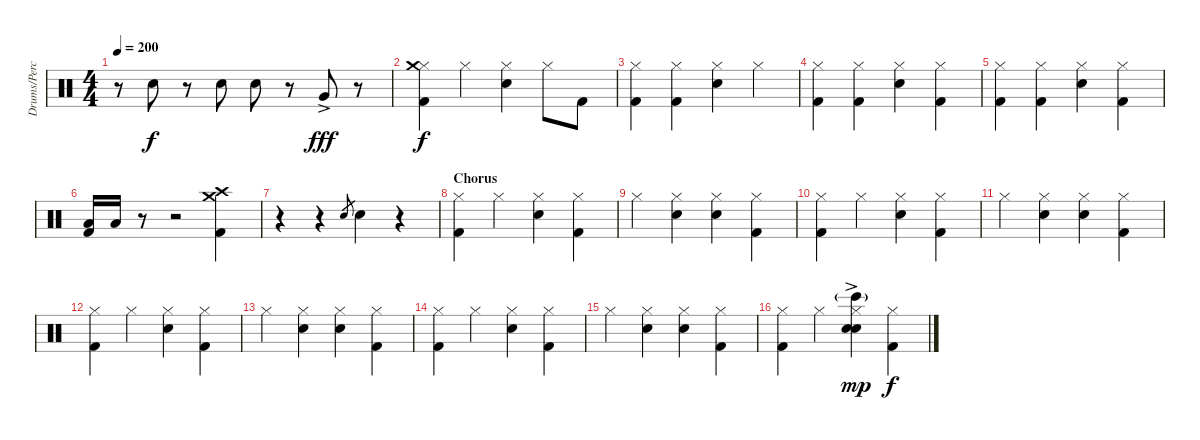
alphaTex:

\track ("Drums/Percussion" "Drums/Perc") {instrument percussion}
\staff {score}
\articulation defaults
\ts (4 4)
\tempo 200
\clef neutral
\ks c
r.8{dy f} "Snare (hit) 2".8 r.8 "Snare (hit) 2".8 "Snare (hit) 2".8 r.8 "Very Low Tom (hit)"{ac}.8{dy fff} r.8 |
("Kick (hit) 2" "Hi-Hat (closed)" "Crash medium (hit)").4{dy f} "Hi-Hat (closed)".4 ("Snare (hit) 2" "Hi-Hat (closed)").4 "Hi-Hat (closed)".8 "Kick (hit) 2".8 |
("Kick (hit) 2" "Hi-Hat (closed)").4 ("Kick (hit) 2" "Hi-Hat (closed)").4 ("Snare (hit) 2" "Hi-Hat (closed)").4 "Hi-Hat (closed)".4 |
("Kick (hit) 2" "Hi-Hat (closed)").4 ("Kick (hit) 2" "Hi-Hat (closed)").4 ("Snare (hit) 2" "Hi-Hat (closed)").4 ("Kick (hit) 2" "Hi-Hat (closed)").4 |
("Kick (hit) 2" "Hi-Hat (closed)").4 ("Kick (hit) 2" "Hi-Hat (closed)").4 ("Snare (hit) 2" "Hi-Hat (closed)").4 ("Kick (hit) 2" "Hi-Hat (closed)").4 |
("Kick (hit) 2" "Low Floor Tom (hit)").16 "Low Floor Tom (hit)".16 r.8 r.2 ("Kick (hit) 2" "Crash high (hit)" "Crash medium (hit)").4 |
r.4 r.4 "Snare (hit) 2".8{gr} "Snare (hit) 2".4 r.4 |
\section ("" "Chorus")
("Kick (hit) 2" "Hi-Hat (closed)").4 "Hi-Hat (closed)".4 ("Snare (hit) 2" "Hi-Hat (closed)").4 ("Kick (hit) 2" "Hi-Hat (closed)").4 |
"Hi-Hat (closed)".4 ("Snare (hit) 2" "Hi-Hat (closed)").4 ("Snare (hit) 2" "Hi-Hat (closed)").4 ("Kick (hit) 2" "Hi-Hat (closed)").4 |
("Kick (hit) 2" "Hi-Hat (closed)").4 "Hi-Hat (closed)".4 ("Snare (hit) 2" "Hi-Hat (closed)").4 ("Kick (hit) 2" "Hi-Hat (closed)").4 |
"Hi-Hat (closed)".4 ("Snare (hit) 2" "Hi-Hat (closed)").4 ("Snare (hit) 2" "Hi-Hat (closed)").4 ("Kick (hit) 2" "Hi-Hat (closed)").4 |
("Kick (hit) 2" "Hi-Hat (closed)").4 "Hi-Hat (closed)".4 ("Snare (hit) 2" "Hi-Hat (closed)").4 ("Kick (hit) 2" "Hi-Hat (closed)").4 |
"Hi-Hat (closed)".4 ("Snare (hit) 2" "Hi-Hat (closed)").4 ("Snare (hit) 2" "Hi-Hat (closed)").4 ("Kick (hit) 2" "Hi-Hat (closed)").4 |
("Kick (hit) 2" "Hi-Hat (closed)").4 "Hi-Hat (closed)".4 ("Snare (hit) 2" "Hi-Hat (closed)").4 ("Kick (hit) 2" "Hi-Hat (closed)").4 |
"Hi-Hat (closed)".4 ("Snare (hit) 2" "Hi-Hat (closed)").4 ("Snare (hit) 2" "Hi-Hat (closed)").4 ("Kick (hit) 2" "Hi-Hat (closed)").4 |
("Kick (hit) 2" "Hi-Hat (closed)").4 "Hi-Hat (closed)".4 ("Snare (hit) 2" "Hi-Hat (closed)" "Hand Clap (hit)"{ac} "Bongo High (hit)"{g}).4{dy mp} ("Kick (hit) 2" "Hi-Hat (closed)").4{dy f}
